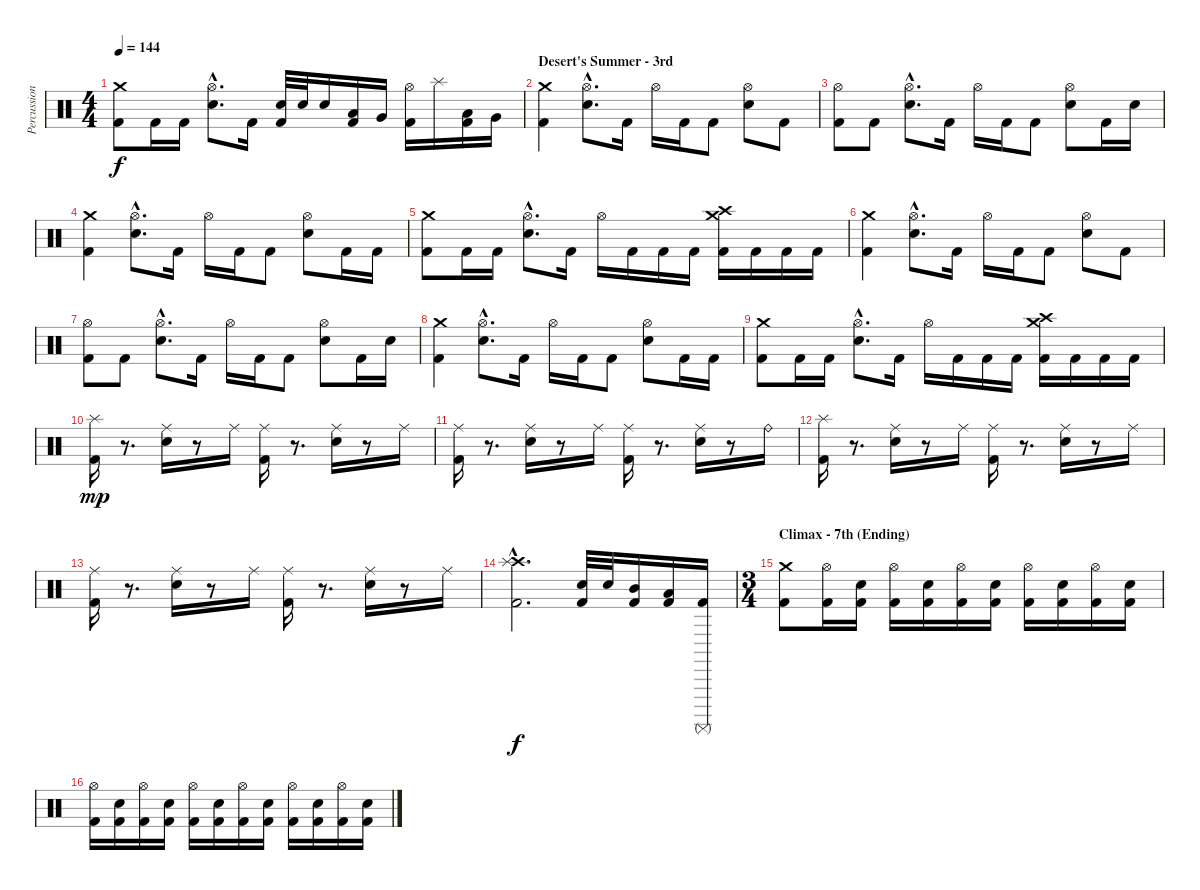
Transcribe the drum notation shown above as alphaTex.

\track ("Percussion" "Percussion") {instrument percussion}
\staff {score}
\articulation defaults
\ts (4 4)
\tempo 144
\clef neutral
\ks c
("Crash medium (hit)" "Kick (hit) 2").8{dy f} "Kick (hit) 2".16 "Kick (hit) 2".16 ("Hi-Hat (open)"{hac} "Electric Snare (hit)"{hac}).8{d} "Kick (hit) 2".16 ("Electric Snare (hit)" "Kick (hit) 2").32 "Electric Snare (hit)".32 "Electric Snare (hit)".16 ("Low Tom (hit)" "Kick (hit) 2").16 "Very Low Tom (hit)".16 ("Hi-Hat (open)" "Kick (hit) 2").16 "Splash (hit)".16 ("Low Tom (hit)" "Kick (hit) 2").16 "Very Low Tom (hit)".16 |
\section ("" "Desert's Summer - 3rd")
("Crash medium (hit)" "Kick (hit) 2").4 ("Hi-Hat (open)"{hac} "Electric Snare (hit)"{hac}).8{d} "Kick (hit) 2".16 "Hi-Hat (open)".16 "Kick (hit) 2".16 "Kick (hit) 2".8 ("Hi-Hat (open)" "Electric Snare (hit)").8 "Kick (hit) 2".8 |
("Hi-Hat (open)" "Kick (hit) 2").8 "Kick (hit) 2".8 ("Hi-Hat (open)"{hac} "Electric Snare (hit)"{hac}).8{d} "Kick (hit) 2".16 "Hi-Hat (open)".16 "Kick (hit) 2".16 "Kick (hit) 2".8 ("Hi-Hat (open)" "Electric Snare (hit)").8 "Kick (hit) 2".16 "Electric Snare (hit)".16 |
("Crash medium (hit)" "Kick (hit) 2").4 ("Hi-Hat (open)"{hac} "Electric Snare (hit)"{hac}).8{d} "Kick (hit) 2".16 "Hi-Hat (open)".16 "Kick (hit) 2".16 "Kick (hit) 2".8 ("Hi-Hat (open)" "Electric Snare (hit)").8 "Kick (hit) 2".16 "Kick (hit) 2".16 |
("Crash medium (hit)" "Kick (hit) 2").8 "Kick (hit) 2".16 "Kick (hit) 2".16 ("Hi-Hat (open)"{hac} "Electric Snare (hit)"{hac}).8{d} "Kick (hit) 2".16 "Hi-Hat (open)".16 "Kick (hit) 2".16 "Kick (hit) 2".16 "Kick (hit) 2".16 ("Crash high (hit)" "Crash medium (hit)" "Kick (hit) 2").16 "Kick (hit) 2".16 "Kick (hit) 2".16 "Kick (hit) 2".16 |
("Crash medium (hit)" "Kick (hit) 2").4 ("Hi-Hat (open)"{hac} "Electric Snare (hit)"{hac}).8{d} "Kick (hit) 2".16 "Hi-Hat (open)".16 "Kick (hit) 2".16 "Kick (hit) 2".8 ("Hi-Hat (open)" "Electric Snare (hit)").8 "Kick (hit) 2".8 |
("Hi-Hat (open)" "Kick (hit) 2").8 "Kick (hit) 2".8 ("Hi-Hat (open)"{hac} "Electric Snare (hit)"{hac}).8{d} "Kick (hit) 2".16 "Hi-Hat (open)".16 "Kick (hit) 2".16 "Kick (hit) 2".8 ("Hi-Hat (open)" "Electric Snare (hit)").8 "Kick (hit) 2".16 "Electric Snare (hit)".16 |
("Crash medium (hit)" "Kick (hit) 2").4 ("Hi-Hat (open)"{hac} "Electric Snare (hit)"{hac}).8{d} "Kick (hit) 2".16 "Hi-Hat (open)".16 "Kick (hit) 2".16 "Kick (hit) 2".8 ("Hi-Hat (open)" "Electric Snare (hit)").8 "Kick (hit) 2".16 "Kick (hit) 2".16 |
("Crash medium (hit)" "Kick (hit) 2").8 "Kick (hit) 2".16 "Kick (hit) 2".16 ("Hi-Hat (open)"{hac} "Electric Snare (hit)"{hac}).8{d} "Kick (hit) 2".16 "Hi-Hat (open)".16 "Kick (hit) 2".16 "Kick (hit) 2".16 "Kick (hit) 2".16 ("Crash high (hit)" "Crash medium (hit)" "Kick (hit) 2").16 "Kick (hit) 2".16 "Kick (hit) 2".16 "Kick (hit) 2".16 |
("Splash (hit)" "Kick (hit) 2").16{dy mp} r.8{d} ("Ride (middle)" "Snare (hit) 2").16 r.8 "Ride (middle)".16 ("Ride (middle)" "Kick (hit) 2").16 r.8{d} ("Ride (middle)" "Snare (hit) 2").16 r.8 "Ride (middle)".16 |
("Ride (middle)" "Kick (hit) 2").16 r.8{d} ("Ride (middle)" "Snare (hit) 2").16 r.8 "Ride (middle)".16 ("Ride (middle)" "Kick (hit) 2").16 r.8{d} ("Ride (middle)" "Snare (hit) 2").16 r.8 "Ride (bell)".16 |
("Splash (hit)" "Kick (hit) 2").16 r.8{d} ("Ride (middle)" "Snare (hit) 2").16 r.8 "Ride (middle)".16 ("Ride (middle)" "Kick (hit) 2").16 r.8{d} ("Ride (middle)" "Snare (hit) 2").16 r.8 "Ride (middle)".16 |
("Ride (middle)" "Kick (hit) 2").16 r.8{d} ("Ride (middle)" "Snare (hit) 2").16 r.8 "Ride (middle)".16 ("Ride (middle)" "Kick (hit) 2").16 r.8{d} ("Ride (middle)" "Snare (hit) 2").16 r.8 "Ride (middle)".16 |
("Crash high (hit)"{hac} "Splash (hit)"{hac} "Kick (hit) 2"{hac}).2{d dy f} ("Electric Snare (hit)" "Kick (hit) 2").32 "Electric Snare (hit)".32 ("Mid Tom (hit)" "Kick (hit) 2").16 ("Low Tom (hit)" "Kick (hit) 2").16 ("Surdo (mute)" "Kick (hit) 2").16 |
\ts (3 4)
\section ("" "Climax - 7th (Ending)")
("Crash medium (hit)" "Kick (hit) 2").8 ("Hi-Hat (open)" "Kick (hit) 2").16 ("Electric Snare (hit)" "Kick (hit) 2").16 ("Hi-Hat (open)" "Kick (hit) 2").16 ("Electric Snare (hit)" "Kick (hit) 2").16 ("Hi-Hat (open)" "Kick (hit) 2").16 ("Electric Snare (hit)" "Kick (hit) 2").16 ("Hi-Hat (open)" "Kick (hit) 2").16 ("Electric Snare (hit)" "Kick (hit) 2").16 ("Hi-Hat (open)" "Kick (hit) 2").16 ("Electric Snare (hit)" "Kick (hit) 2").16 |
("Hi-Hat (open)" "Kick (hit) 2").16 ("Electric Snare (hit)" "Kick (hit) 2").16 ("Hi-Hat (open)" "Kick (hit) 2").16 ("Electric Snare (hit)" "Kick (hit) 2").16 ("Hi-Hat (open)" "Kick (hit) 2").16 ("Electric Snare (hit)" "Kick (hit) 2").16 ("Hi-Hat (open)" "Kick (hit) 2").16 ("Electric Snare (hit)" "Kick (hit) 2").16 ("Hi-Hat (open)" "Kick (hit) 2").16 ("Electric Snare (hit)" "Kick (hit) 2").16 ("Hi-Hat (open)" "Kick (hit) 2").16 ("Electric Snare (hit)" "Kick (hit) 2").16
